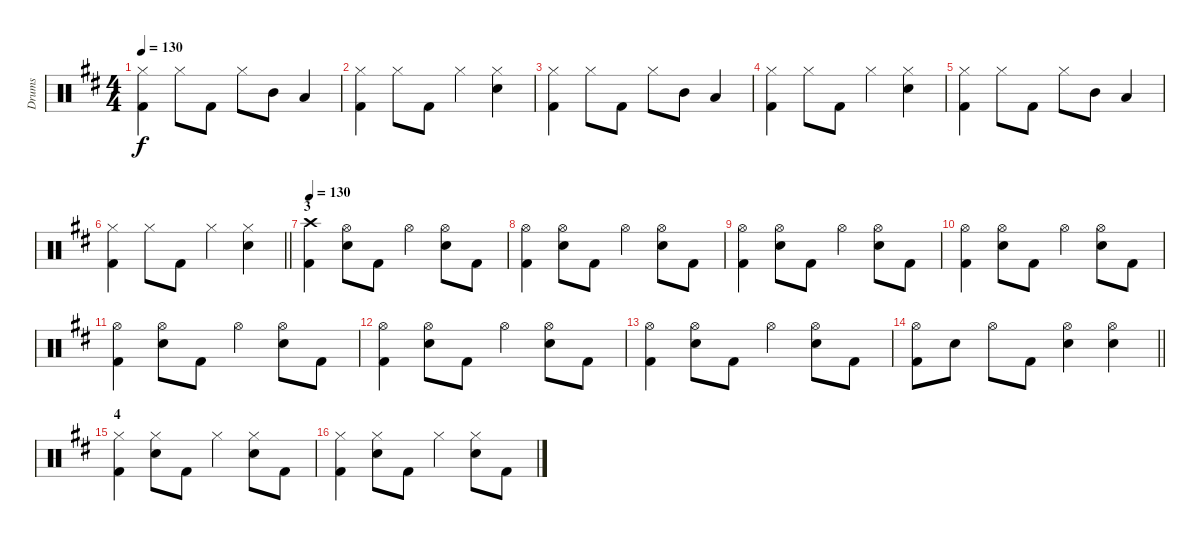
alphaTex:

\track ("Drums" "Drums") {instrument percussion}
\staff {score}
\articulation defaults
\ts (4 4)
\tempo 130
\clef neutral
\ks d
("Kick (hit) 2" "Hi-Hat (closed)").4{dy f} "Hi-Hat (closed)".8 "Kick (hit) 2".8 "Hi-Hat (closed)".8 "Mid Tom (hit)".8 "Low Tom (hit)".4 |
("Kick (hit) 2" "Hi-Hat (closed)").4 "Hi-Hat (closed)".8 "Kick (hit) 2".8 "Hi-Hat (closed)".4 ("Electric Snare (hit)" "Hi-Hat (closed)").4 |
("Kick (hit) 2" "Hi-Hat (closed)").4 "Hi-Hat (closed)".8 "Kick (hit) 2".8 "Hi-Hat (closed)".8 "Mid Tom (hit)".8 "Low Tom (hit)".4 |
("Kick (hit) 2" "Hi-Hat (closed)").4 "Hi-Hat (closed)".8 "Kick (hit) 2".8 "Hi-Hat (closed)".4 ("Electric Snare (hit)" "Hi-Hat (closed)").4 |
("Kick (hit) 2" "Hi-Hat (closed)").4 "Hi-Hat (closed)".8 "Kick (hit) 2".8 "Hi-Hat (closed)".8 "Mid Tom (hit)".8 "Low Tom (hit)".4 |
\barLineRight lightlight
("Kick (hit) 2" "Hi-Hat (closed)").4 "Hi-Hat (closed)".8 "Kick (hit) 2".8 "Hi-Hat (closed)".4 ("Electric Snare (hit)" "Hi-Hat (closed)").4 |
\section ("" "3")
\tempo 130
("Kick (hit) 2" "Crash high (hit)").4 ("Electric Snare (hit)" "Hi-Hat (open)").8 "Kick (hit) 2".8 "Hi-Hat (open)".4 ("Electric Snare (hit)" "Hi-Hat (open)").8 "Kick (hit) 2".8 |
("Kick (hit) 2" "Hi-Hat (open)").4 ("Electric Snare (hit)" "Hi-Hat (open)").8 "Kick (hit) 2".8 "Hi-Hat (open)".4 ("Electric Snare (hit)" "Hi-Hat (open)").8 "Kick (hit) 2".8 |
("Kick (hit) 2" "Hi-Hat (open)").4 ("Electric Snare (hit)" "Hi-Hat (open)").8 "Kick (hit) 2".8 "Hi-Hat (open)".4 ("Electric Snare (hit)" "Hi-Hat (open)").8 "Kick (hit) 2".8 |
("Kick (hit) 2" "Hi-Hat (open)").4 ("Electric Snare (hit)" "Hi-Hat (open)").8 "Kick (hit) 2".8 "Hi-Hat (open)".4 ("Electric Snare (hit)" "Hi-Hat (open)").8 "Kick (hit) 2".8 |
("Kick (hit) 2" "Hi-Hat (open)").4 ("Electric Snare (hit)" "Hi-Hat (open)").8 "Kick (hit) 2".8 "Hi-Hat (open)".4 ("Electric Snare (hit)" "Hi-Hat (open)").8 "Kick (hit) 2".8 |
("Kick (hit) 2" "Hi-Hat (open)").4 ("Electric Snare (hit)" "Hi-Hat (open)").8 "Kick (hit) 2".8 "Hi-Hat (open)".4 ("Electric Snare (hit)" "Hi-Hat (open)").8 "Kick (hit) 2".8 |
("Kick (hit) 2" "Hi-Hat (open)").4 ("Electric Snare (hit)" "Hi-Hat (open)").8 "Kick (hit) 2".8 "Hi-Hat (open)".4 ("Electric Snare (hit)" "Hi-Hat (open)").8 "Kick (hit) 2".8 |
\barLineRight lightlight
("Kick (hit) 2" "Hi-Hat (open)").8 "Electric Snare (hit)".8 "Hi-Hat (open)".8 "Kick (hit) 2".8 ("Hi-Hat (open)" "Electric Snare (hit)").4 ("Hi-Hat (open)" "Electric Snare (hit)").4 |
\section ("" "4")
("Kick (hit) 2" "Hi-Hat (closed)").4 ("Electric Snare (hit)" "Hi-Hat (closed)").8 "Kick (hit) 2".8 "Hi-Hat (closed)".4 ("Electric Snare (hit)" "Hi-Hat (closed)").8 "Kick (hit) 2".8 |
("Kick (hit) 2" "Hi-Hat (closed)").4 ("Electric Snare (hit)" "Hi-Hat (closed)").8 "Kick (hit) 2".8 "Hi-Hat (closed)".4 ("Electric Snare (hit)" "Hi-Hat (closed)").8 "Kick (hit) 2".8
